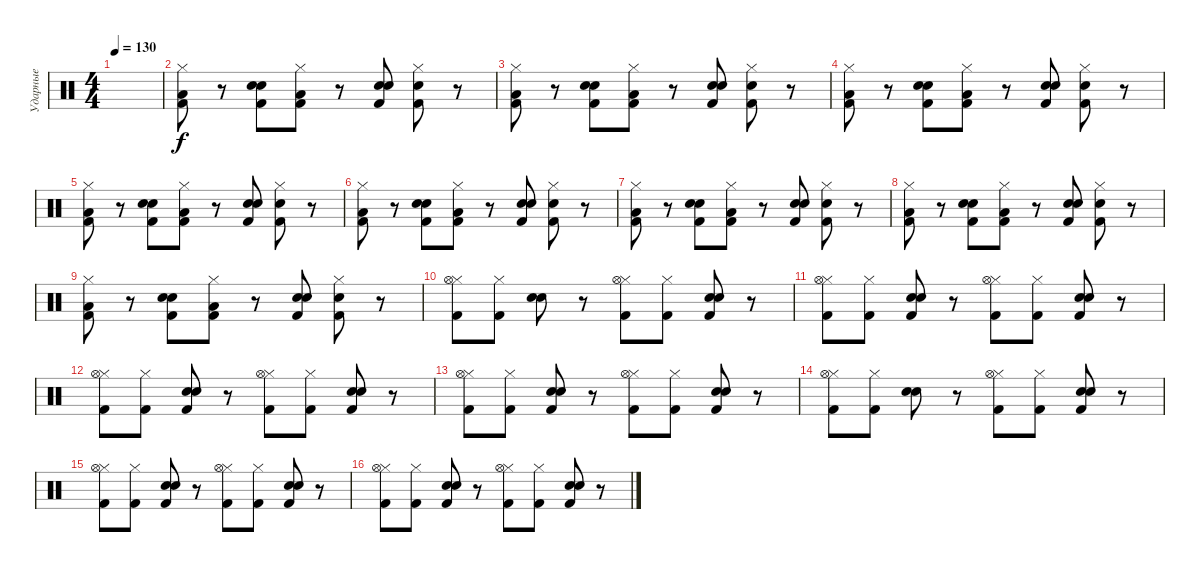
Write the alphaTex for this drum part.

\track ("Ударные" "Ударные") {instrument percussion}
\staff {score}
\articulation defaults
\ts (4 4)
\tempo 130
\clef neutral
\ks c
|
("Hi-Hat (closed)" "Kick (hit) 2" "Low Floor Tom (hit)").8 r.8 ("Snare (hit) 2" "Kick (hit) 2" "Electric Snare (hit)").8 ("Hi-Hat (closed)" "Kick (hit) 2" "Low Floor Tom (hit)").8 r.8 ("Snare (hit) 2" "Kick (hit) 2" "Electric Snare (hit)").8 ("Hi-Hat (closed)" "Kick (hit) 2" "Electric Snare (hit)").8 r.8 |
("Hi-Hat (closed)" "Kick (hit) 2" "Low Floor Tom (hit)").8 r.8 ("Snare (hit) 2" "Kick (hit) 2" "Electric Snare (hit)").8 ("Hi-Hat (closed)" "Kick (hit) 2" "Low Floor Tom (hit)").8 r.8 ("Snare (hit) 2" "Kick (hit) 2" "Electric Snare (hit)").8 ("Hi-Hat (closed)" "Kick (hit) 2" "Electric Snare (hit)").8 r.8 |
("Hi-Hat (closed)" "Kick (hit) 2" "Low Floor Tom (hit)").8 r.8 ("Snare (hit) 2" "Kick (hit) 2" "Electric Snare (hit)").8 ("Hi-Hat (closed)" "Kick (hit) 2" "Low Floor Tom (hit)").8 r.8 ("Snare (hit) 2" "Kick (hit) 2" "Electric Snare (hit)").8 ("Hi-Hat (closed)" "Kick (hit) 2" "Electric Snare (hit)").8 r.8 |
("Hi-Hat (closed)" "Kick (hit) 2" "Low Floor Tom (hit)").8 r.8 ("Snare (hit) 2" "Kick (hit) 2" "Electric Snare (hit)").8 ("Hi-Hat (closed)" "Kick (hit) 2" "Low Floor Tom (hit)").8 r.8 ("Snare (hit) 2" "Kick (hit) 2" "Electric Snare (hit)").8 ("Hi-Hat (closed)" "Kick (hit) 2" "Electric Snare (hit)").8 r.8 |
("Hi-Hat (closed)" "Kick (hit) 2" "Low Floor Tom (hit)").8 r.8 ("Snare (hit) 2" "Kick (hit) 2" "Electric Snare (hit)").8 ("Hi-Hat (closed)" "Kick (hit) 2" "Low Floor Tom (hit)").8 r.8 ("Snare (hit) 2" "Kick (hit) 2" "Electric Snare (hit)").8 ("Hi-Hat (closed)" "Kick (hit) 2" "Electric Snare (hit)").8 r.8 |
("Hi-Hat (closed)" "Kick (hit) 2" "Low Floor Tom (hit)").8 r.8 ("Snare (hit) 2" "Kick (hit) 2" "Electric Snare (hit)").8 ("Hi-Hat (closed)" "Kick (hit) 2" "Low Floor Tom (hit)").8 r.8 ("Snare (hit) 2" "Kick (hit) 2" "Electric Snare (hit)").8 ("Hi-Hat (closed)" "Kick (hit) 2" "Electric Snare (hit)").8 r.8 |
("Hi-Hat (closed)" "Kick (hit) 2" "Low Floor Tom (hit)").8 r.8 ("Snare (hit) 2" "Kick (hit) 2" "Electric Snare (hit)").8 ("Hi-Hat (closed)" "Kick (hit) 2" "Low Floor Tom (hit)").8 r.8 ("Snare (hit) 2" "Kick (hit) 2" "Electric Snare (hit)").8 ("Hi-Hat (closed)" "Kick (hit) 2" "Electric Snare (hit)").8 r.8 |
("Hi-Hat (closed)" "Kick (hit) 2" "Low Floor Tom (hit)").8 r.8 ("Snare (hit) 2" "Kick (hit) 2" "Electric Snare (hit)").8 ("Hi-Hat (closed)" "Kick (hit) 2" "Low Floor Tom (hit)").8 r.8 ("Snare (hit) 2" "Kick (hit) 2" "Electric Snare (hit)").8 ("Hi-Hat (closed)" "Kick (hit) 2" "Electric Snare (hit)").8 r.8 |
("Hi-Hat (closed)" "Kick (hit) 2" "Hi-Hat (open)").8 ("Hi-Hat (closed)" "Kick (hit) 2").8 ("Snare (hit) 2" "Electric Snare (hit)").8 r.8 ("Hi-Hat (closed)" "Kick (hit) 2" "Hi-Hat (open)").8 ("Hi-Hat (closed)" "Kick (hit) 2").8 ("Snare (hit) 2" "Kick (hit) 2" "Electric Snare (hit)").8 r.8 |
("Hi-Hat (closed)" "Kick (hit) 2" "Hi-Hat (open)").8 ("Hi-Hat (closed)" "Kick (hit) 2").8 ("Snare (hit) 2" "Kick (hit) 2" "Electric Snare (hit)").8 r.8 ("Hi-Hat (closed)" "Kick (hit) 2" "Hi-Hat (open)").8 ("Hi-Hat (closed)" "Kick (hit) 2").8 ("Snare (hit) 2" "Kick (hit) 2" "Electric Snare (hit)").8 r.8 |
("Hi-Hat (closed)" "Kick (hit) 2" "Hi-Hat (open)").8 ("Hi-Hat (closed)" "Kick (hit) 2").8 ("Snare (hit) 2" "Kick (hit) 2" "Electric Snare (hit)").8 r.8 ("Hi-Hat (closed)" "Kick (hit) 2" "Hi-Hat (open)").8 ("Hi-Hat (closed)" "Kick (hit) 2").8 ("Snare (hit) 2" "Kick (hit) 2" "Electric Snare (hit)").8 r.8 |
("Hi-Hat (closed)" "Kick (hit) 2" "Hi-Hat (open)").8 ("Hi-Hat (closed)" "Kick (hit) 2").8 ("Snare (hit) 2" "Kick (hit) 2" "Electric Snare (hit)").8 r.8 ("Hi-Hat (closed)" "Kick (hit) 2" "Hi-Hat (open)").8 ("Hi-Hat (closed)" "Kick (hit) 2").8 ("Snare (hit) 2" "Kick (hit) 2" "Electric Snare (hit)").8 r.8 |
("Hi-Hat (closed)" "Kick (hit) 2" "Hi-Hat (open)").8 ("Hi-Hat (closed)" "Kick (hit) 2").8 ("Snare (hit) 2" "Electric Snare (hit)").8 r.8 ("Hi-Hat (closed)" "Kick (hit) 2" "Hi-Hat (open)").8 ("Hi-Hat (closed)" "Kick (hit) 2").8 ("Snare (hit) 2" "Kick (hit) 2" "Electric Snare (hit)").8 r.8 |
("Hi-Hat (closed)" "Kick (hit) 2" "Hi-Hat (open)").8 ("Hi-Hat (closed)" "Kick (hit) 2").8 ("Snare (hit) 2" "Kick (hit) 2" "Electric Snare (hit)").8 r.8 ("Hi-Hat (closed)" "Kick (hit) 2" "Hi-Hat (open)").8 ("Hi-Hat (closed)" "Kick (hit) 2").8 ("Snare (hit) 2" "Kick (hit) 2" "Electric Snare (hit)").8 r.8 |
("Hi-Hat (closed)" "Kick (hit) 2" "Hi-Hat (open)").8 ("Hi-Hat (closed)" "Kick (hit) 2").8 ("Snare (hit) 2" "Kick (hit) 2" "Electric Snare (hit)").8 r.8 ("Hi-Hat (closed)" "Kick (hit) 2" "Hi-Hat (open)").8 ("Hi-Hat (closed)" "Kick (hit) 2").8 ("Snare (hit) 2" "Kick (hit) 2" "Electric Snare (hit)").8 r.8
